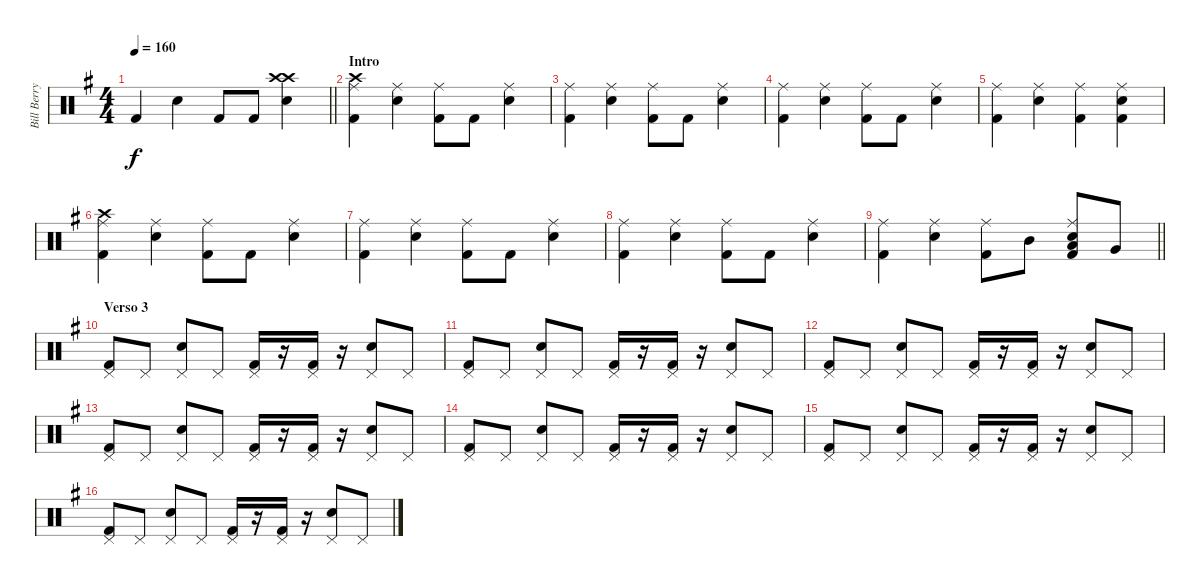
\track ("Bill Berry" "Bill Berry") {instrument percussion}
\staff {score}
\articulation defaults
\ts (4 4)
\tempo 160
\clef neutral
\barLineRight lightlight
\ks g "Kick (hit) 2".4{dy f} "Snare (hit) 2".4 "Kick (hit) 2".8 "Kick (hit) 2".8
("Snare (hit) 2" "Crash high (hit)" "Crash high (hit)").4 |
\section ("" "Intro")
("Kick (hit) 2" "Crash high (hit)" "Ride (middle)").4 ("Snare (hit) 2" "Ride (middle)").4 ("Kick (hit) 2" "Ride (middle)").8 "Kick (hit) 2".8 ("Snare (hit) 2" "Ride (middle)").4 |
("Kick (hit) 2" "Ride (middle)").4 ("Snare (hit) 2" "Ride (middle)").4 ("Kick (hit) 2" "Ride (middle)").8 "Kick (hit) 2".8 ("Snare (hit) 2" "Ride (middle)").4 |
("Kick (hit) 2" "Ride (middle)").4 ("Snare (hit) 2" "Ride (middle)").4 ("Kick (hit) 2" "Ride (middle)").8 "Kick (hit) 2".8 ("Snare (hit) 2" "Ride (middle)").4 |
("Kick (hit) 2" "Ride (middle)").4 ("Snare (hit) 2" "Ride (middle)").4 ("Kick (hit) 2" "Ride (middle)").4 ("Snare (hit) 2" "Ride (middle)" "Kick (hit) 2").4 |
("Kick (hit) 2" "Crash high (hit)" "Ride (middle)").4 ("Snare (hit) 2" "Ride (middle)").4 ("Kick (hit) 2" "Ride (middle)").8 "Kick (hit) 2".8 ("Snare (hit) 2" "Ride (middle)").4 |
("Kick (hit) 2" "Ride (middle)").4 ("Snare (hit) 2" "Ride (middle)").4 ("Kick (hit) 2" "Ride (middle)").8 "Kick (hit) 2".8 ("Snare (hit) 2" "Ride (middle)").4 |
("Kick (hit) 2" "Ride (middle)").4 ("Snare (hit) 2" "Ride (middle)").4 ("Kick (hit) 2" "Ride (middle)").8 "Kick (hit) 2".8 ("Snare (hit) 2" "Ride (middle)").4 |
\barLineRight lightlight
("Kick (hit) 2" "Ride (middle)").4 ("Snare (hit) 2" "Ride (middle)").4 ("Kick (hit) 2" "Ride (middle)").8 "Mid Tom (hit)".8 ("Snare (hit) 2" "Ride (middle)" "Kick (hit) 2" "Low Tom (hit)").8 "Very Low Tom (hit)".8 |
\section ("" "Verso 3")
("Kick (hit) 2" "Pedal Hi-Hat (hit)").8 "Pedal Hi-Hat (hit)".8 ("Snare (hit) 2" "Pedal Hi-Hat (hit)").8 "Pedal Hi-Hat (hit)".8 ("Kick (hit) 2" "Pedal Hi-Hat (hit)").16 r.16 ("Kick (hit) 2" "Pedal Hi-Hat (hit)").16 r.16 ("Snare (hit) 2" "Pedal Hi-Hat (hit)").8 "Pedal Hi-Hat (hit)".8 |
("Kick (hit) 2" "Pedal Hi-Hat (hit)").8 "Pedal Hi-Hat (hit)".8 ("Snare (hit) 2" "Pedal Hi-Hat (hit)").8 "Pedal Hi-Hat (hit)".8 ("Kick (hit) 2" "Pedal Hi-Hat (hit)").16 r.16 ("Kick (hit) 2" "Pedal Hi-Hat (hit)").16 r.16 ("Snare (hit) 2" "Pedal Hi-Hat (hit)").8 "Pedal Hi-Hat (hit)".8 |
("Kick (hit) 2" "Pedal Hi-Hat (hit)").8 "Pedal Hi-Hat (hit)".8 ("Snare (hit) 2" "Pedal Hi-Hat (hit)").8 "Pedal Hi-Hat (hit)".8 ("Kick (hit) 2" "Pedal Hi-Hat (hit)").16 r.16 ("Kick (hit) 2" "Pedal Hi-Hat (hit)").16 r.16 ("Snare (hit) 2" "Pedal Hi-Hat (hit)").8 "Pedal Hi-Hat (hit)".8 |
("Kick (hit) 2" "Pedal Hi-Hat (hit)").8 "Pedal Hi-Hat (hit)".8 ("Snare (hit) 2" "Pedal Hi-Hat (hit)").8 "Pedal Hi-Hat (hit)".8 ("Kick (hit) 2" "Pedal Hi-Hat (hit)").16 r.16 ("Kick (hit) 2" "Pedal Hi-Hat (hit)").16 r.16 ("Snare (hit) 2" "Pedal Hi-Hat (hit)").8 "Pedal Hi-Hat (hit)".8 |
("Kick (hit) 2" "Pedal Hi-Hat (hit)").8 "Pedal Hi-Hat (hit)".8 ("Snare (hit) 2" "Pedal Hi-Hat (hit)").8 "Pedal Hi-Hat (hit)".8 ("Kick (hit) 2" "Pedal Hi-Hat (hit)").16 r.16 ("Kick (hit) 2" "Pedal Hi-Hat (hit)").16 r.16 ("Snare (hit) 2" "Pedal Hi-Hat (hit)").8 "Pedal Hi-Hat (hit)".8 |
("Kick (hit) 2" "Pedal Hi-Hat (hit)").8 "Pedal Hi-Hat (hit)".8 ("Snare (hit) 2" "Pedal Hi-Hat (hit)").8 "Pedal Hi-Hat (hit)".8 ("Kick (hit) 2" "Pedal Hi-Hat (hit)").16 r.16 ("Kick (hit) 2" "Pedal Hi-Hat (hit)").16 r.16 ("Snare (hit) 2" "Pedal Hi-Hat (hit)").8 "Pedal Hi-Hat (hit)".8 |
("Kick (hit) 2" "Pedal Hi-Hat (hit)").8 "Pedal Hi-Hat (hit)".8 ("Snare (hit) 2" "Pedal Hi-Hat (hit)").8 "Pedal Hi-Hat (hit)".8 ("Kick (hit) 2" "Pedal Hi-Hat (hit)").16 r.16 ("Kick (hit) 2" "Pedal Hi-Hat (hit)").16 r.16 ("Snare (hit) 2" "Pedal Hi-Hat (hit)").8 "Pedal Hi-Hat (hit)".8
